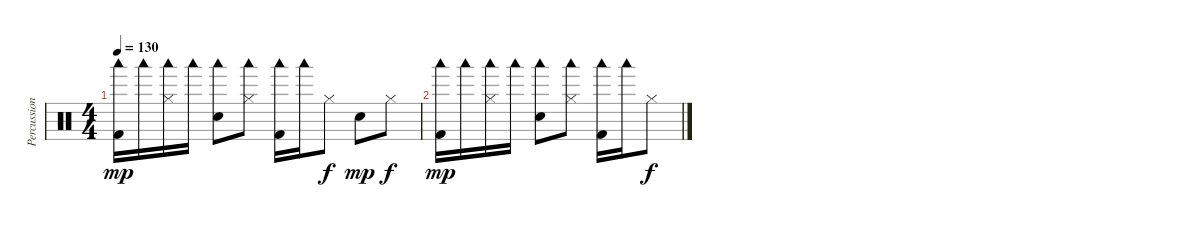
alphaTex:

\track ("Percussion" "Percussion") {instrument percussion}
\staff {score}
\articulation defaults
\ts (4 4)
\tempo 130
\clef neutral
\ks c
("Woodblock low (hit)" "Kick (hit) 2").16{dy mp} "Woodblock low (hit)".16 ("Woodblock low (hit)" "Hi-Hat (closed)").16 "Woodblock low (hit)".16 ("Woodblock low (hit)" "Electric Snare (hit)").8 ("Woodblock low (hit)" "Hi-Hat (closed)").8 ("Woodblock low (hit)" "Kick (hit) 2").16 "Woodblock low (hit)".16 "Hi-Hat (closed)".8{dy f} "Electric Snare (hit)".8{dy mp} "Hi-Hat (closed)".8{dy f} |
("Woodblock low (hit)" "Kick (hit) 2").16{dy mp} "Woodblock low (hit)".16 ("Woodblock low (hit)" "Hi-Hat (closed)").16 "Woodblock low (hit)".16 ("Woodblock low (hit)" "Electric Snare (hit)").8 ("Woodblock low (hit)" "Hi-Hat (closed)").8 ("Woodblock low (hit)" "Kick (hit) 2").16 "Woodblock low (hit)".16 "Hi-Hat (closed)".8{dy f}
